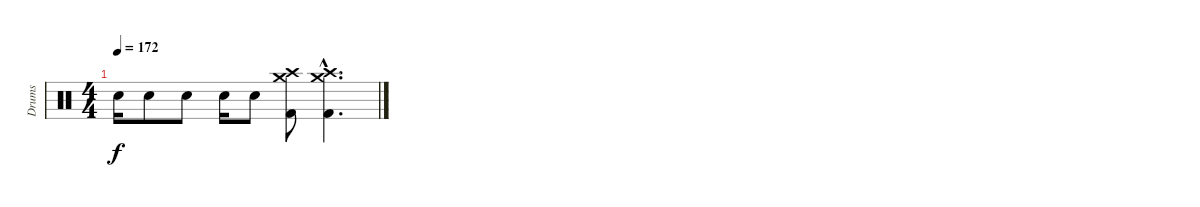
\track ("Drums" "Drums") {instrument percussion}
\staff {score}
\articulation defaults
\ts (4 4)
\tempo 172
\clef neutral
\ks c "Electric Snare (hit)".16{dy f} "Electric Snare (hit)".8 "Electric Snare (hit)".8 "Electric Snare (hit)".16 "Electric Snare (hit)".8
("Crash medium (hit)" "Crash high (hit)" "Kick (hit) 2").8 ("Crash medium (hit)"{hac} "Crash high (hit)"{hac} "Kick (hit) 2"{hac}).4{d}
